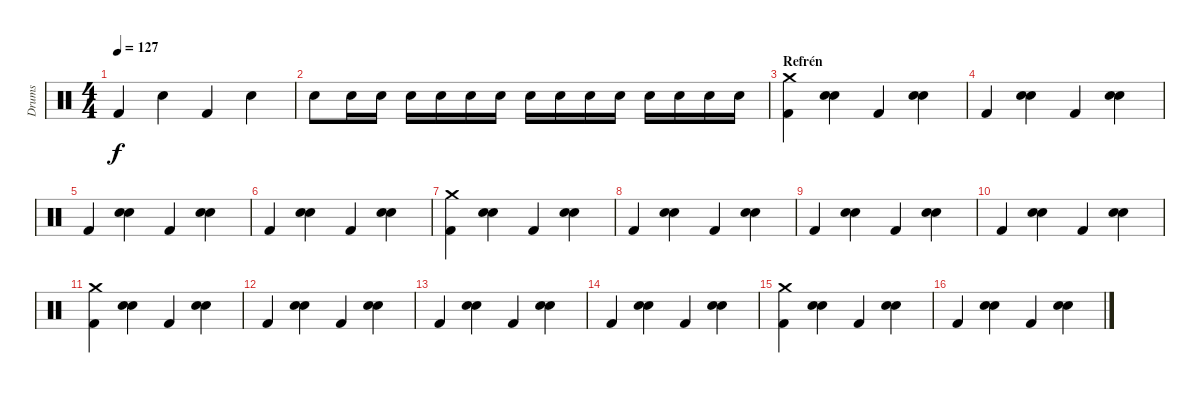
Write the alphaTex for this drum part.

\track ("Drums" "Drums") {instrument percussion}
\staff {score}
\articulation defaults
\ts (4 4)
\tempo 127
\clef neutral
\ks c "Kick (hit) 2".4{dy f} "Electric Snare (hit)".4 "Kick (hit) 2".4 "Electric Snare (hit)".4
|
"Electric Snare (hit)".8 "Electric Snare (hit)".16 "Electric Snare (hit)".16 "Electric Snare (hit)".16 "Electric Snare (hit)".16 "Electric Snare (hit)".16 "Electric Snare (hit)".16 "Electric Snare (hit)".16 "Electric Snare (hit)".16 "Electric Snare (hit)".16 "Electric Snare (hit)".16 "Electric Snare (hit)".16 "Electric Snare (hit)".16 "Electric Snare (hit)".16 "Electric Snare (hit)".16 |
\section ("" "Refrén")
("Kick (hit) 2" "Crash medium (hit)").4 ("Electric Snare (hit)" "Hand Clap (hit)").4 "Kick (hit) 2".4 ("Electric Snare (hit)" "Hand Clap (hit)").4 |
"Kick (hit) 2".4 ("Electric Snare (hit)" "Hand Clap (hit)").4 "Kick (hit) 2".4 ("Electric Snare (hit)" "Hand Clap (hit)").4 |
"Kick (hit) 2".4 ("Electric Snare (hit)" "Hand Clap (hit)").4 "Kick (hit) 2".4 ("Electric Snare (hit)" "Hand Clap (hit)").4 |
"Kick (hit) 2".4 ("Electric Snare (hit)" "Hand Clap (hit)").4 "Kick (hit) 2".4 ("Electric Snare (hit)" "Hand Clap (hit)").4 |
("Kick (hit) 2" "Crash medium (hit)").4 ("Electric Snare (hit)" "Hand Clap (hit)").4 "Kick (hit) 2".4 ("Electric Snare (hit)" "Hand Clap (hit)").4 |
"Kick (hit) 2".4 ("Electric Snare (hit)" "Hand Clap (hit)").4 "Kick (hit) 2".4 ("Electric Snare (hit)" "Hand Clap (hit)").4 |
"Kick (hit) 2".4 ("Electric Snare (hit)" "Hand Clap (hit)").4 "Kick (hit) 2".4 ("Electric Snare (hit)" "Hand Clap (hit)").4 |
"Kick (hit) 2".4 ("Electric Snare (hit)" "Hand Clap (hit)").4 "Kick (hit) 2".4 ("Electric Snare (hit)" "Hand Clap (hit)").4 |
("Kick (hit) 2" "Crash medium (hit)").4 ("Electric Snare (hit)" "Hand Clap (hit)").4 "Kick (hit) 2".4 ("Electric Snare (hit)" "Hand Clap (hit)").4 |
"Kick (hit) 2".4 ("Electric Snare (hit)" "Hand Clap (hit)").4 "Kick (hit) 2".4 ("Electric Snare (hit)" "Hand Clap (hit)").4 |
"Kick (hit) 2".4 ("Electric Snare (hit)" "Hand Clap (hit)").4 "Kick (hit) 2".4 ("Electric Snare (hit)" "Hand Clap (hit)").4 |
"Kick (hit) 2".4 ("Electric Snare (hit)" "Hand Clap (hit)").4 "Kick (hit) 2".4 ("Electric Snare (hit)" "Hand Clap (hit)").4 |
("Kick (hit) 2" "Crash medium (hit)").4 ("Electric Snare (hit)" "Hand Clap (hit)").4 "Kick (hit) 2".4 ("Electric Snare (hit)" "Hand Clap (hit)").4 |
"Kick (hit) 2".4 ("Electric Snare (hit)" "Hand Clap (hit)").4 "Kick (hit) 2".4 ("Electric Snare (hit)" "Hand Clap (hit)").4
